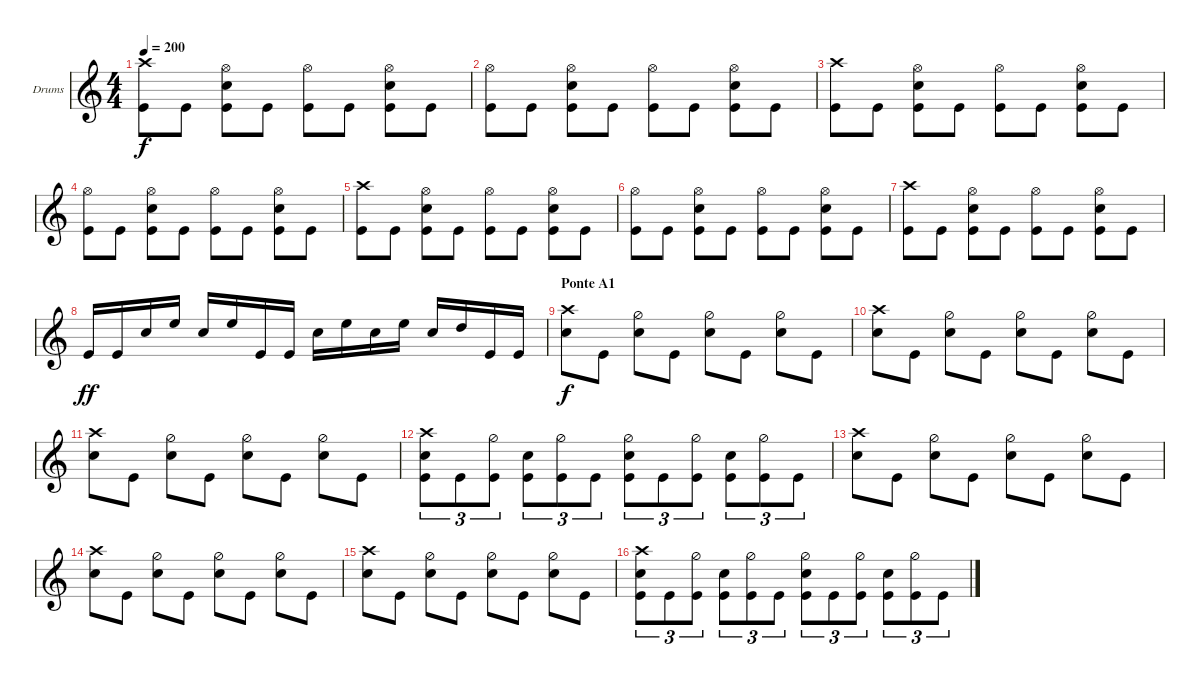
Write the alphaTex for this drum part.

\defaultSystemsLayout 4
\bracketExtendMode groupsimilarinstruments
\firstSystemTrackNameOrientation horizontal
\otherSystemsTrackNameOrientation horizontal
\track ("Drums" "Drums") {instrument percussion}
\staff {score}
\articulation defaults
\ts (4 4)
\tempo 200
\clef g2
\ks c
("Kick (hit)" "Crash high (hit)").8{dy f} "Kick (hit)".8 ("Snare (hit) 2" "Hi-Hat (open)" "Kick (hit)").8 "Kick (hit)".8 ("Hi-Hat (open)" "Kick (hit)").8 "Kick (hit)".8 ("Snare (hit) 2" "Hi-Hat (open)" "Kick (hit)").8 "Kick (hit)".8 |
("Kick (hit)" "Hi-Hat (open)").8 "Kick (hit)".8 ("Snare (hit) 2" "Hi-Hat (open)" "Kick (hit)").8 "Kick (hit)".8 ("Hi-Hat (open)" "Kick (hit)").8 "Kick (hit)".8 ("Snare (hit) 2" "Hi-Hat (open)" "Kick (hit)").8 "Kick (hit)".8 |
("Kick (hit)" "Crash high (hit)").8 "Kick (hit)".8 ("Snare (hit) 2" "Hi-Hat (open)" "Kick (hit)").8 "Kick (hit)".8 ("Hi-Hat (open)" "Kick (hit)").8 "Kick (hit)".8 ("Snare (hit) 2" "Hi-Hat (open)" "Kick (hit)").8 "Kick (hit)".8 |
("Kick (hit)" "Hi-Hat (open)").8 "Kick (hit)".8 ("Snare (hit) 2" "Hi-Hat (open)" "Kick (hit)").8 "Kick (hit)".8 ("Hi-Hat (open)" "Kick (hit)").8 "Kick (hit)".8 ("Snare (hit) 2" "Hi-Hat (open)" "Kick (hit)").8 "Kick (hit)".8 |
("Kick (hit)" "Crash high (hit)").8 "Kick (hit)".8 ("Snare (hit) 2" "Hi-Hat (open)" "Kick (hit)").8 "Kick (hit)".8 ("Hi-Hat (open)" "Kick (hit)").8 "Kick (hit)".8 ("Snare (hit) 2" "Hi-Hat (open)" "Kick (hit)").8 "Kick (hit)".8 |
("Kick (hit)" "Hi-Hat (open)").8 "Kick (hit)".8 ("Snare (hit) 2" "Hi-Hat (open)" "Kick (hit)").8 "Kick (hit)".8 ("Hi-Hat (open)" "Kick (hit)").8 "Kick (hit)".8 ("Snare (hit) 2" "Hi-Hat (open)" "Kick (hit)").8 "Kick (hit)".8 |
("Kick (hit)" "Crash high (hit)").8 "Kick (hit)".8 ("Snare (hit) 2" "Hi-Hat (open)" "Kick (hit)").8 "Kick (hit)".8 ("Hi-Hat (open)" "Kick (hit)").8 "Kick (hit)".8 ("Snare (hit) 2" "Hi-Hat (open)" "Kick (hit)").8 "Kick (hit)".8 |
"Kick (hit)".16{dy ff} "Kick (hit)".16 "Snare (hit) 2".16 "High Floor Tom (hit)".16 "Snare (hit) 2".16 "High Floor Tom (hit)".16 "Kick (hit)".16 "Kick (hit)".16 "Snare (hit) 2".16 "High Floor Tom (hit)".16 "Snare (hit) 2".16 "High Floor Tom (hit)".16 "Snare (hit) 2".16 "High Tom (hit)".16 "Kick (hit)".16 "Kick (hit)".16 |
\section ("" "Ponte A1")
("Snare (hit) 2" "Crash high (hit)").8{dy f} "Kick (hit)".8 ("Snare (hit) 2" "Hi-Hat (half)").8 "Kick (hit)".8 ("Snare (hit) 2" "Hi-Hat (half)").8 "Kick (hit)".8 ("Snare (hit) 2" "Hi-Hat (half)").8 "Kick (hit)".8 |
("Snare (hit) 2" "Crash high (hit)").8 "Kick (hit)".8 ("Snare (hit) 2" "Hi-Hat (half)").8 "Kick (hit)".8 ("Snare (hit) 2" "Hi-Hat (half)").8 "Kick (hit)".8 ("Snare (hit) 2" "Hi-Hat (half)").8 "Kick (hit)".8 |
("Snare (hit) 2" "Crash high (hit)").8 "Kick (hit)".8 ("Snare (hit) 2" "Hi-Hat (half)").8 "Kick (hit)".8 ("Snare (hit) 2" "Hi-Hat (half)").8 "Kick (hit)".8 ("Snare (hit) 2" "Hi-Hat (half)").8 "Kick (hit)".8 |
("Snare (hit) 2" "Crash high (hit)" "Kick (hit)").8{tu (3 2)} "Kick (hit)".8{tu (3 2)} ("Hi-Hat (half)" "Kick (hit)").8{tu (3 2)} ("Kick (hit)" "Snare (hit) 2").8{tu (3 2)} ("Hi-Hat (half)" "Kick (hit)").8{tu (3 2)} "Kick (hit)".8{tu (3 2)} ("Snare (hit) 2" "Kick (hit)" "Hi-Hat (half)").8{tu (3 2)} "Kick (hit)".8{tu (3 2)} ("Hi-Hat (half)" "Kick (hit)").8{tu (3 2)} ("Kick (hit)" "Snare (hit) 2").8{tu (3 2)} ("Hi-Hat (half)" "Kick (hit)").8{tu (3 2)} "Kick (hit)".8{tu (3 2)} |
("Snare (hit) 2" "Crash high (hit)").8 "Kick (hit)".8 ("Snare (hit) 2" "Hi-Hat (half)").8 "Kick (hit)".8 ("Snare (hit) 2" "Hi-Hat (half)").8 "Kick (hit)".8 ("Snare (hit) 2" "Hi-Hat (half)").8 "Kick (hit)".8 |
("Snare (hit) 2" "Crash high (hit)").8 "Kick (hit)".8 ("Snare (hit) 2" "Hi-Hat (half)").8 "Kick (hit)".8 ("Snare (hit) 2" "Hi-Hat (half)").8 "Kick (hit)".8 ("Snare (hit) 2" "Hi-Hat (half)").8 "Kick (hit)".8 |
("Snare (hit) 2" "Crash high (hit)").8 "Kick (hit)".8 ("Snare (hit) 2" "Hi-Hat (half)").8 "Kick (hit)".8 ("Snare (hit) 2" "Hi-Hat (half)").8 "Kick (hit)".8 ("Snare (hit) 2" "Hi-Hat (half)").8 "Kick (hit)".8 |
("Snare (hit) 2" "Crash high (hit)" "Kick (hit)").8{tu (3 2)} "Kick (hit)".8{tu (3 2)} ("Hi-Hat (half)" "Kick (hit)").8{tu (3 2)} ("Kick (hit)" "Snare (hit) 2").8{tu (3 2)} ("Hi-Hat (half)" "Kick (hit)").8{tu (3 2)} "Kick (hit)".8{tu (3 2)} ("Snare (hit) 2" "Kick (hit)" "Hi-Hat (half)").8{tu (3 2)} "Kick (hit)".8{tu (3 2)} ("Hi-Hat (half)" "Kick (hit)").8{tu (3 2)} ("Kick (hit)" "Snare (hit) 2").8{tu (3 2)} ("Hi-Hat (half)" "Kick (hit)").8{tu (3 2)} "Kick (hit)".8{tu (3 2)}
